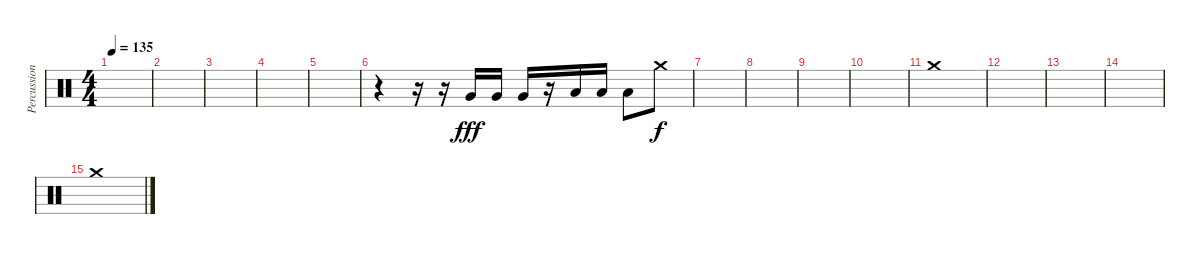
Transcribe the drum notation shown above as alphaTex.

\track ("Percussion" "Percussion") {instrument percussion}
\staff {score}
\articulation defaults
\ts (4 4)
\tempo 135
\clef neutral
\ks c
|
|
|
|
|
r.4 r.16 r.16 "Very Low Tom (hit)".16{dy fff} "Very Low Tom (hit)".16 "Very Low Tom (hit)".16 r.16 "Low Floor Tom (hit)".16 "Low Floor Tom (hit)".16 "Low Floor Tom (hit)".8 "Crash medium (hit)".8{dy f} |
|
|
|
|
"Crash medium (hit)".1 |
|
|
|
"Crash medium (hit)".1
